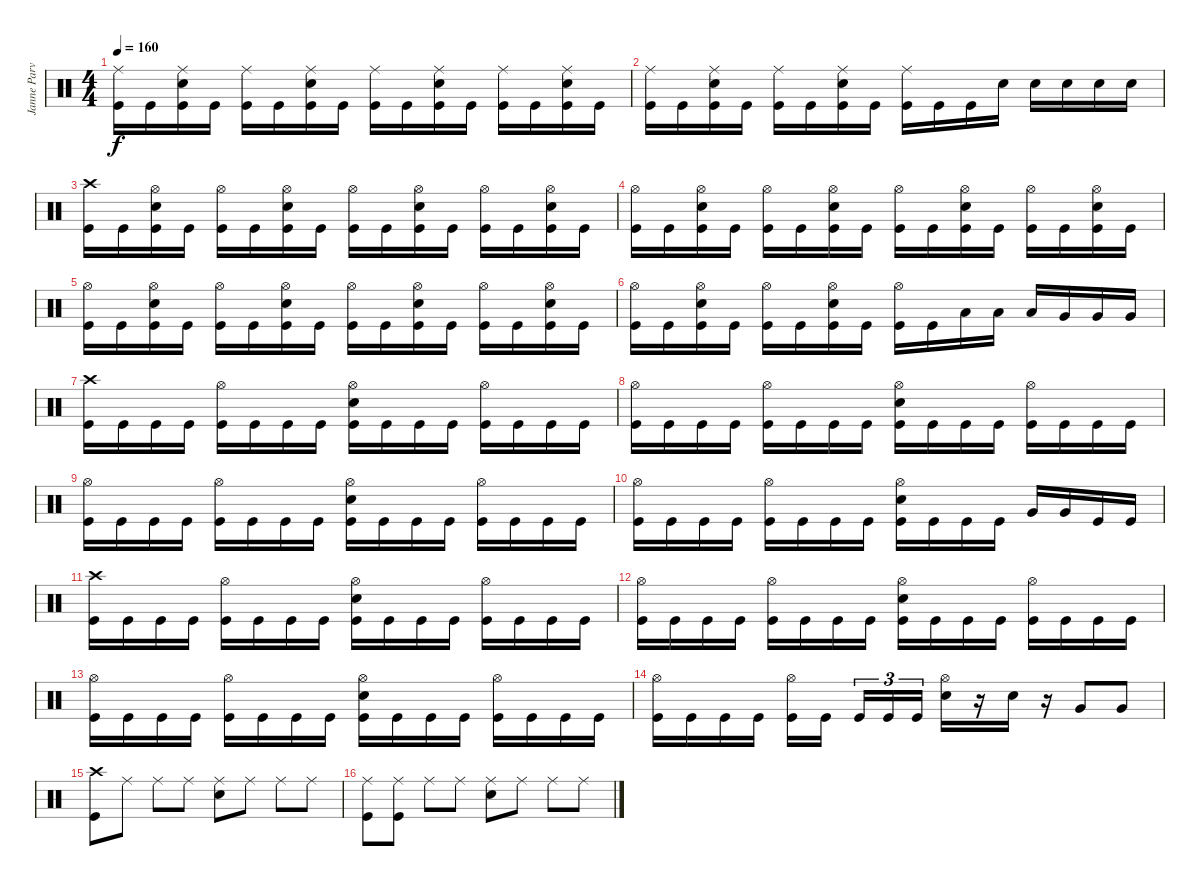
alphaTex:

\track ("Janne Parviainen" "Janne Parv") {instrument percussion}
\staff {score}
\articulation defaults
\ts (4 4)
\tempo 160
\clef neutral
\ks c
("Ride (middle)" "Kick (hit)").16{dy f} "Kick (hit)".16 ("Ride (middle)" "Electric Snare (hit)" "Kick (hit)").16 "Kick (hit)".16 ("Ride (middle)" "Kick (hit)").16 "Kick (hit)".16 ("Ride (middle)" "Electric Snare (hit)" "Kick (hit)").16 "Kick (hit)".16 ("Ride (middle)" "Kick (hit)").16 "Kick (hit)".16 ("Ride (middle)" "Electric Snare (hit)" "Kick (hit)").16 "Kick (hit)".16 ("Ride (middle)" "Kick (hit)").16 "Kick (hit)".16 ("Ride (middle)" "Electric Snare (hit)" "Kick (hit)").16 "Kick (hit)".16 |
("Ride (middle)" "Kick (hit)").16 "Kick (hit)".16 ("Ride (middle)" "Electric Snare (hit)" "Kick (hit)").16 "Kick (hit)".16 ("Ride (middle)" "Kick (hit)").16 "Kick (hit)".16 ("Ride (middle)" "Electric Snare (hit)" "Kick (hit)").16 "Kick (hit)".16 ("Ride (middle)" "Kick (hit)").16 "Kick (hit)".16 "Kick (hit)".16 "Electric Snare (hit)".16 "Electric Snare (hit)".16 "Electric Snare (hit)".16 "Electric Snare (hit)".16 "Electric Snare (hit)".16 |
("Crash high (hit)" "Kick (hit)").16 "Kick (hit)".16 ("Hi-Hat (open)" "Electric Snare (hit)" "Kick (hit)").16 "Kick (hit)".16 ("Hi-Hat (open)" "Kick (hit)").16 "Kick (hit)".16 ("Hi-Hat (open)" "Electric Snare (hit)" "Kick (hit)").16 "Kick (hit)".16 ("Hi-Hat (open)" "Kick (hit)").16 "Kick (hit)".16 ("Hi-Hat (open)" "Electric Snare (hit)" "Kick (hit)").16 "Kick (hit)".16 ("Hi-Hat (open)" "Kick (hit)").16 "Kick (hit)".16 ("Hi-Hat (open)" "Electric Snare (hit)" "Kick (hit)").16 "Kick (hit)".16 |
("Hi-Hat (open)" "Kick (hit)").16 "Kick (hit)".16 ("Hi-Hat (open)" "Electric Snare (hit)" "Kick (hit)").16 "Kick (hit)".16 ("Hi-Hat (open)" "Kick (hit)").16 "Kick (hit)".16 ("Hi-Hat (open)" "Electric Snare (hit)" "Kick (hit)").16 "Kick (hit)".16 ("Hi-Hat (open)" "Kick (hit)").16 "Kick (hit)".16 ("Hi-Hat (open)" "Electric Snare (hit)" "Kick (hit)").16 "Kick (hit)".16 ("Hi-Hat (open)" "Kick (hit)").16 "Kick (hit)".16 ("Hi-Hat (open)" "Electric Snare (hit)" "Kick (hit)").16 "Kick (hit)".16 |
("Hi-Hat (open)" "Kick (hit)").16 "Kick (hit)".16 ("Hi-Hat (open)" "Electric Snare (hit)" "Kick (hit)").16 "Kick (hit)".16 ("Hi-Hat (open)" "Kick (hit)").16 "Kick (hit)".16 ("Hi-Hat (open)" "Electric Snare (hit)" "Kick (hit)").16 "Kick (hit)".16 ("Hi-Hat (open)" "Kick (hit)").16 "Kick (hit)".16 ("Hi-Hat (open)" "Electric Snare (hit)" "Kick (hit)").16 "Kick (hit)".16 ("Hi-Hat (open)" "Kick (hit)").16 "Kick (hit)".16 ("Hi-Hat (open)" "Electric Snare (hit)" "Kick (hit)").16 "Kick (hit)".16 |
("Hi-Hat (open)" "Kick (hit)").16 "Kick (hit)".16 ("Hi-Hat (open)" "Electric Snare (hit)" "Kick (hit)").16 "Kick (hit)".16 ("Hi-Hat (open)" "Kick (hit)").16 "Kick (hit)".16 ("Hi-Hat (open)" "Electric Snare (hit)" "Kick (hit)").16 "Kick (hit)".16 ("Hi-Hat (open)" "Kick (hit)").16 "Kick (hit)".16 "Low Tom (hit)".16 "Low Tom (hit)".16 "Low Tom (hit)".16 "Very Low Tom (hit)".16 "Very Low Tom (hit)".16 "Very Low Tom (hit)".16 |
("Crash high (hit)" "Kick (hit)").16 "Kick (hit)".16 "Kick (hit)".16 "Kick (hit)".16 ("Hi-Hat (open)" "Kick (hit)").16 "Kick (hit)".16 "Kick (hit)".16 "Kick (hit)".16 ("Hi-Hat (open)" "Electric Snare (hit)" "Kick (hit)").16 "Kick (hit)".16 "Kick (hit)".16 "Kick (hit)".16 ("Hi-Hat (open)" "Kick (hit)").16 "Kick (hit)".16 "Kick (hit)".16 "Kick (hit)".16 |
("Hi-Hat (open)" "Kick (hit)").16 "Kick (hit)".16 "Kick (hit)".16 "Kick (hit)".16 ("Hi-Hat (open)" "Kick (hit)").16 "Kick (hit)".16 "Kick (hit)".16 "Kick (hit)".16 ("Hi-Hat (open)" "Electric Snare (hit)" "Kick (hit)").16 "Kick (hit)".16 "Kick (hit)".16 "Kick (hit)".16 ("Hi-Hat (open)" "Kick (hit)").16 "Kick (hit)".16 "Kick (hit)".16 "Kick (hit)".16 |
("Hi-Hat (open)" "Kick (hit)").16 "Kick (hit)".16 "Kick (hit)".16 "Kick (hit)".16 ("Hi-Hat (open)" "Kick (hit)").16 "Kick (hit)".16 "Kick (hit)".16 "Kick (hit)".16 ("Hi-Hat (open)" "Electric Snare (hit)" "Kick (hit)").16 "Kick (hit)".16 "Kick (hit)".16 "Kick (hit)".16 ("Hi-Hat (open)" "Kick (hit)").16 "Kick (hit)".16 "Kick (hit)".16 "Kick (hit)".16 |
("Hi-Hat (open)" "Kick (hit)").16 "Kick (hit)".16 "Kick (hit)".16 "Kick (hit)".16 ("Hi-Hat (open)" "Kick (hit)").16 "Kick (hit)".16 "Kick (hit)".16 "Kick (hit)".16 ("Hi-Hat (open)" "Electric Snare (hit)" "Kick (hit)").16 "Kick (hit)".16 "Kick (hit)".16 "Kick (hit)".16 "Very Low Tom (hit)".16 "Very Low Tom (hit)".16 "Kick (hit)".16 "Kick (hit)".16 |
("Crash high (hit)" "Kick (hit)").16 "Kick (hit)".16 "Kick (hit)".16 "Kick (hit)".16 ("Hi-Hat (open)" "Kick (hit)").16 "Kick (hit)".16 "Kick (hit)".16 "Kick (hit)".16 ("Hi-Hat (open)" "Electric Snare (hit)" "Kick (hit)").16 "Kick (hit)".16 "Kick (hit)".16 "Kick (hit)".16 ("Hi-Hat (open)" "Kick (hit)").16 "Kick (hit)".16 "Kick (hit)".16 "Kick (hit)".16 |
("Hi-Hat (open)" "Kick (hit)").16 "Kick (hit)".16 "Kick (hit)".16 "Kick (hit)".16 ("Hi-Hat (open)" "Kick (hit)").16 "Kick (hit)".16 "Kick (hit)".16 "Kick (hit)".16 ("Hi-Hat (open)" "Electric Snare (hit)" "Kick (hit)").16 "Kick (hit)".16 "Kick (hit)".16 "Kick (hit)".16 ("Hi-Hat (open)" "Kick (hit)").16 "Kick (hit)".16 "Kick (hit)".16 "Kick (hit)".16 |
("Hi-Hat (open)" "Kick (hit)").16 "Kick (hit)".16 "Kick (hit)".16 "Kick (hit)".16 ("Hi-Hat (open)" "Kick (hit)").16 "Kick (hit)".16 "Kick (hit)".16 "Kick (hit)".16 ("Hi-Hat (open)" "Electric Snare (hit)" "Kick (hit)").16 "Kick (hit)".16 "Kick (hit)".16 "Kick (hit)".16 ("Hi-Hat (open)" "Kick (hit)").16 "Kick (hit)".16 "Kick (hit)".16 "Kick (hit)".16 |
("Hi-Hat (open)" "Kick (hit)").16 "Kick (hit)".16 "Kick (hit)".16 "Kick (hit)".16 ("Hi-Hat (open)" "Kick (hit)").16 "Kick (hit)".16{beam splitsecondary} "Kick (hit)".16{tu (3 2)} "Kick (hit)".16{tu (3 2)} "Kick (hit)".16{tu (3 2)} ("Hi-Hat (open)" "Electric Snare (hit)").16 r.16 "Electric Snare (hit)".16 r.16 "Very Low Tom (hit)".8 "Very Low Tom (hit)".8 |
("Crash high (hit)" "Kick (hit)").8 "Ride (middle)".8 "Ride (middle)".8 "Ride (middle)".8 ("Ride (middle)" "Electric Snare (hit)").8 "Ride (middle)".8 "Ride (middle)".8 "Ride (middle)".8 |
("Ride (middle)" "Kick (hit)").8 ("Ride (middle)" "Kick (hit)").8 "Ride (middle)".8 "Ride (middle)".8 ("Ride (middle)" "Electric Snare (hit)").8 "Ride (middle)".8 "Ride (middle)".8 "Ride (middle)".8
